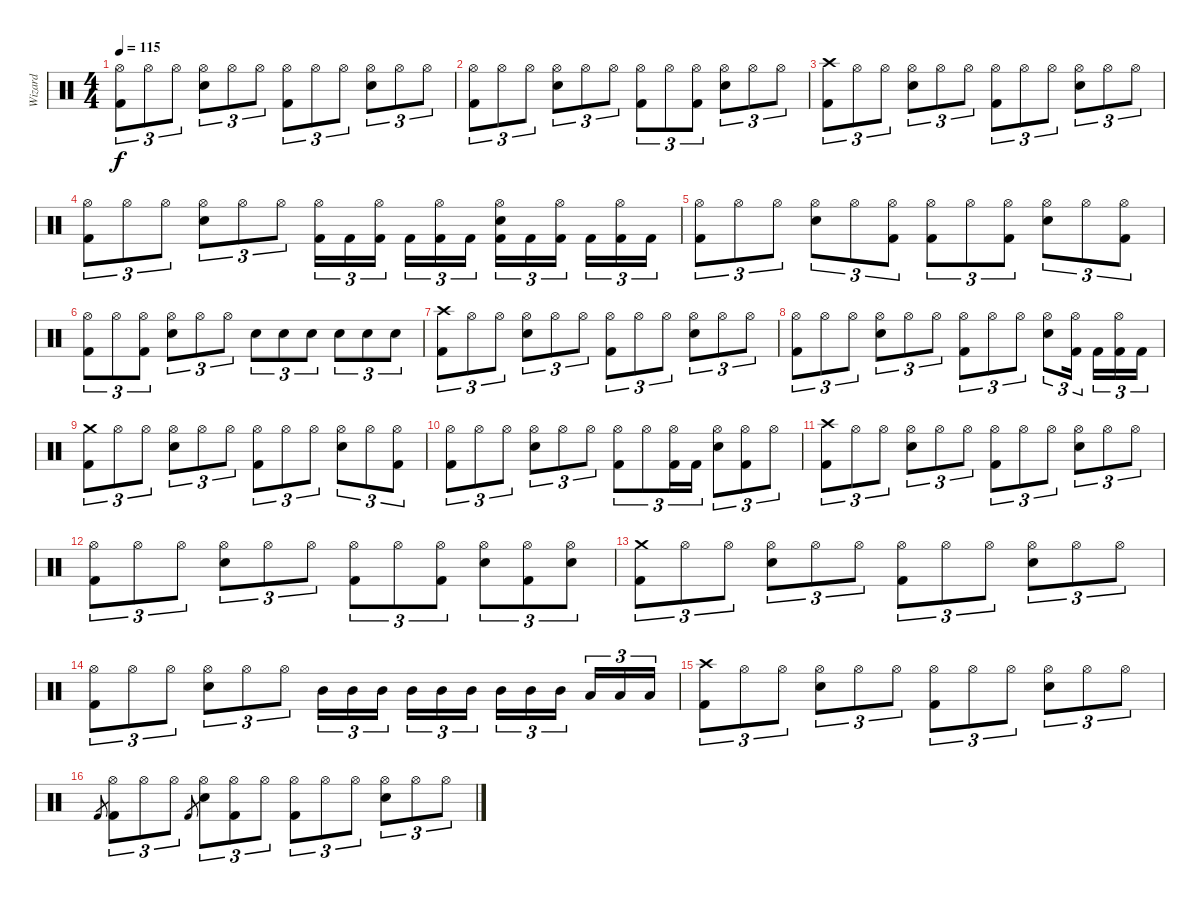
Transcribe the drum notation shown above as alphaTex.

\track ("Wizard" "Wizard") {instrument percussion}
\staff {score}
\articulation defaults
\ts (4 4)
\tempo 115
\clef neutral
\ks c
("Hi-Hat (open)" "Kick (hit) 2").8{tu (3 2) dy f} "Hi-Hat (open)".8{tu (3 2)} "Hi-Hat (open)".8{tu (3 2)} ("Hi-Hat (open)" "Snare (hit) 2").8{tu (3 2)} "Hi-Hat (open)".8{tu (3 2)} "Hi-Hat (open)".8{tu (3 2)} ("Hi-Hat (open)" "Kick (hit) 2").8{tu (3 2)} "Hi-Hat (open)".8{tu (3 2)} "Hi-Hat (open)".8{tu (3 2)} ("Hi-Hat (open)" "Snare (hit) 2").8{tu (3 2)} "Hi-Hat (open)".8{tu (3 2)} "Hi-Hat (open)".8{tu (3 2)} |
("Hi-Hat (open)" "Kick (hit) 2").8{tu (3 2)} "Hi-Hat (open)".8{tu (3 2)} "Hi-Hat (open)".8{tu (3 2)} ("Hi-Hat (open)" "Snare (hit) 2").8{tu (3 2)} "Hi-Hat (open)".8{tu (3 2)} "Hi-Hat (open)".8{tu (3 2)} ("Hi-Hat (open)" "Kick (hit) 2").8{tu (3 2)} "Hi-Hat (open)".8{tu (3 2)} ("Hi-Hat (open)" "Kick (hit) 2").8{tu (3 2)} ("Hi-Hat (open)" "Snare (hit) 2").8{tu (3 2)} "Hi-Hat (open)".8{tu (3 2)} "Hi-Hat (open)".8{tu (3 2)} |
("Crash high (hit)" "Kick (hit) 2").8{tu (3 2)} "Hi-Hat (open)".8{tu (3 2)} "Hi-Hat (open)".8{tu (3 2)} ("Hi-Hat (open)" "Snare (hit) 2").8{tu (3 2)} "Hi-Hat (open)".8{tu (3 2)} "Hi-Hat (open)".8{tu (3 2)} ("Hi-Hat (open)" "Kick (hit) 2").8{tu (3 2)} "Hi-Hat (open)".8{tu (3 2)} "Hi-Hat (open)".8{tu (3 2)} ("Hi-Hat (open)" "Snare (hit) 2").8{tu (3 2)} "Hi-Hat (open)".8{tu (3 2)} "Hi-Hat (open)".8{tu (3 2)} |
("Hi-Hat (open)" "Kick (hit) 2").8{tu (3 2)} "Hi-Hat (open)".8{tu (3 2)} "Hi-Hat (open)".8{tu (3 2)} ("Hi-Hat (open)" "Snare (hit) 2").8{tu (3 2)} "Hi-Hat (open)".8{tu (3 2)} "Hi-Hat (open)".8{tu (3 2)} ("Hi-Hat (open)" "Kick (hit) 2").16{tu (3 2)} "Kick (hit) 2".16{tu (3 2)} ("Hi-Hat (open)" "Kick (hit) 2").16{tu (3 2) beam splitsecondary} "Kick (hit) 2".16{tu (3 2)} ("Hi-Hat (open)" "Kick (hit) 2").16{tu (3 2)} "Kick (hit) 2".16{tu (3 2)} ("Hi-Hat (open)" "Snare (hit) 2" "Kick (hit) 2").16{tu (3 2)} "Kick (hit) 2".16{tu (3 2)} ("Hi-Hat (open)" "Kick (hit) 2").16{tu (3 2) beam splitsecondary} "Kick (hit) 2".16{tu (3 2)} ("Hi-Hat (open)" "Kick (hit) 2").16{tu (3 2)} "Kick (hit) 2".16{tu (3 2)} |
("Hi-Hat (open)" "Kick (hit) 2").8{tu (3 2)} "Hi-Hat (open)".8{tu (3 2)} "Hi-Hat (open)".8{tu (3 2)} ("Hi-Hat (open)" "Snare (hit) 2").8{tu (3 2)} "Hi-Hat (open)".8{tu (3 2)} ("Hi-Hat (open)" "Kick (hit) 2").8{tu (3 2)} ("Hi-Hat (open)" "Kick (hit) 2").8{tu (3 2)} "Hi-Hat (open)".8{tu (3 2)} ("Hi-Hat (open)" "Kick (hit) 2").8{tu (3 2)} ("Hi-Hat (open)" "Snare (hit) 2").8{tu (3 2)} "Hi-Hat (open)".8{tu (3 2)} ("Hi-Hat (open)" "Kick (hit) 2").8{tu (3 2)} |
("Hi-Hat (open)" "Kick (hit) 2").8{tu (3 2)} "Hi-Hat (open)".8{tu (3 2)} ("Hi-Hat (open)" "Kick (hit) 2").8{tu (3 2)} ("Hi-Hat (open)" "Snare (hit) 2").8{tu (3 2)} "Hi-Hat (open)".8{tu (3 2)} "Hi-Hat (open)".8{tu (3 2)} "Snare (hit) 2".8{tu (3 2)} "Snare (hit) 2".8{tu (3 2)} "Snare (hit) 2".8{tu (3 2)} "Snare (hit) 2".8{tu (3 2)} "Snare (hit) 2".8{tu (3 2)} "Snare (hit) 2".8{tu (3 2)} |
("Crash high (hit)" "Kick (hit) 2").8{tu (3 2)} "Hi-Hat (open)".8{tu (3 2)} "Hi-Hat (open)".8{tu (3 2)} ("Hi-Hat (open)" "Snare (hit) 2").8{tu (3 2)} "Hi-Hat (open)".8{tu (3 2)} "Hi-Hat (open)".8{tu (3 2)} ("Hi-Hat (open)" "Kick (hit) 2").8{tu (3 2)} "Hi-Hat (open)".8{tu (3 2)} "Hi-Hat (open)".8{tu (3 2)} ("Hi-Hat (open)" "Snare (hit) 2").8{tu (3 2)} "Hi-Hat (open)".8{tu (3 2)} "Hi-Hat (open)".8{tu (3 2)} |
("Hi-Hat (open)" "Kick (hit) 2").8{tu (3 2)} "Hi-Hat (open)".8{tu (3 2)} "Hi-Hat (open)".8{tu (3 2)} ("Hi-Hat (open)" "Snare (hit) 2").8{tu (3 2)} "Hi-Hat (open)".8{tu (3 2)} "Hi-Hat (open)".8{tu (3 2)} ("Hi-Hat (open)" "Kick (hit) 2").8{tu (3 2)} "Hi-Hat (open)".8{tu (3 2)} "Hi-Hat (open)".8{tu (3 2)} ("Hi-Hat (open)" "Snare (hit) 2").8{tu (3 2)} ("Hi-Hat (open)" "Kick (hit) 2").16{tu (3 2) beam splitsecondary} "Kick (hit) 2".16{tu (3 2)} ("Hi-Hat (open)" "Kick (hit) 2").16{tu (3 2)} "Kick (hit) 2".16{tu (3 2)} |
("Crash medium (hit)" "Kick (hit) 2").8{tu (3 2)} "Hi-Hat (open)".8{tu (3 2)} "Hi-Hat (open)".8{tu (3 2)} ("Hi-Hat (open)" "Snare (hit) 2").8{tu (3 2)} "Hi-Hat (open)".8{tu (3 2)} "Hi-Hat (open)".8{tu (3 2)} ("Hi-Hat (open)" "Kick (hit) 2").8{tu (3 2)} "Hi-Hat (open)".8{tu (3 2)} "Hi-Hat (open)".8{tu (3 2)} ("Hi-Hat (open)" "Snare (hit) 2").8{tu (3 2)} "Hi-Hat (open)".8{tu (3 2)} ("Hi-Hat (open)" "Kick (hit) 2").8{tu (3 2)} |
("Hi-Hat (open)" "Kick (hit) 2").8{tu (3 2)} "Hi-Hat (open)".8{tu (3 2)} "Hi-Hat (open)".8{tu (3 2)} ("Hi-Hat (open)" "Snare (hit) 2").8{tu (3 2)} "Hi-Hat (open)".8{tu (3 2)} "Hi-Hat (open)".8{tu (3 2)} ("Hi-Hat (open)" "Kick (hit) 2").8{tu (3 2)} "Hi-Hat (open)".8{tu (3 2)} ("Hi-Hat (open)" "Kick (hit) 2").16{tu (3 2)} "Kick (hit) 2".16{tu (3 2)} ("Hi-Hat (open)" "Snare (hit) 2").8{tu (3 2)} ("Hi-Hat (open)" "Kick (hit) 2").8{tu (3 2)} "Hi-Hat (open)".8{tu (3 2)} |
("Crash high (hit)" "Kick (hit) 2").8{tu (3 2)} "Hi-Hat (open)".8{tu (3 2)} "Hi-Hat (open)".8{tu (3 2)} ("Hi-Hat (open)" "Snare (hit) 2").8{tu (3 2)} "Hi-Hat (open)".8{tu (3 2)} "Hi-Hat (open)".8{tu (3 2)} ("Hi-Hat (open)" "Kick (hit) 2").8{tu (3 2)} "Hi-Hat (open)".8{tu (3 2)} "Hi-Hat (open)".8{tu (3 2)} ("Hi-Hat (open)" "Snare (hit) 2").8{tu (3 2)} "Hi-Hat (open)".8{tu (3 2)} "Hi-Hat (open)".8{tu (3 2)} |
("Hi-Hat (open)" "Kick (hit) 2").8{tu (3 2)} "Hi-Hat (open)".8{tu (3 2)} "Hi-Hat (open)".8{tu (3 2)} ("Hi-Hat (open)" "Snare (hit) 2").8{tu (3 2)} "Hi-Hat (open)".8{tu (3 2)} "Hi-Hat (open)".8{tu (3 2)} ("Hi-Hat (open)" "Kick (hit) 2").8{tu (3 2)} "Hi-Hat (open)".8{tu (3 2)} ("Hi-Hat (open)" "Kick (hit) 2").8{tu (3 2)} ("Hi-Hat (open)" "Snare (hit) 2").8{tu (3 2)} ("Hi-Hat (open)" "Kick (hit) 2").8{tu (3 2)} ("Hi-Hat (open)" "Snare (hit) 2").8{tu (3 2)} |
("Crash medium (hit)" "Kick (hit) 2").8{tu (3 2)} "Hi-Hat (open)".8{tu (3 2)} "Hi-Hat (open)".8{tu (3 2)} ("Hi-Hat (open)" "Snare (hit) 2").8{tu (3 2)} "Hi-Hat (open)".8{tu (3 2)} "Hi-Hat (open)".8{tu (3 2)} ("Hi-Hat (open)" "Kick (hit) 2").8{tu (3 2)} "Hi-Hat (open)".8{tu (3 2)} "Hi-Hat (open)".8{tu (3 2)} ("Hi-Hat (open)" "Snare (hit) 2").8{tu (3 2)} "Hi-Hat (open)".8{tu (3 2)} "Hi-Hat (open)".8{tu (3 2)} |
("Hi-Hat (open)" "Kick (hit) 2").8{tu (3 2)} "Hi-Hat (open)".8{tu (3 2)} "Hi-Hat (open)".8{tu (3 2)} ("Hi-Hat (open)" "Snare (hit) 2").8{tu (3 2)} "Hi-Hat (open)".8{tu (3 2)} "Hi-Hat (open)".8{tu (3 2)} "Mid Tom (hit)".16{tu (3 2)} "Mid Tom (hit)".16{tu (3 2)} "Mid Tom (hit)".16{tu (3 2) beam splitsecondary} "Mid Tom (hit)".16{tu (3 2)} "Mid Tom (hit)".16{tu (3 2)} "Mid Tom (hit)".16{tu (3 2)} "Mid Tom (hit)".16{tu (3 2)} "Mid Tom (hit)".16{tu (3 2)} "Mid Tom (hit)".16{tu (3 2) beam splitsecondary} "Low Tom (hit)".16{tu (3 2)} "Low Tom (hit)".16{tu (3 2)} "Low Tom (hit)".16{tu (3 2)} |
("Crash high (hit)" "Kick (hit) 2").8{tu (3 2)} "Hi-Hat (open)".8{tu (3 2)} "Hi-Hat (open)".8{tu (3 2)} ("Hi-Hat (open)" "Snare (hit) 2").8{tu (3 2)} "Hi-Hat (open)".8{tu (3 2)} "Hi-Hat (open)".8{tu (3 2)} ("Hi-Hat (open)" "Kick (hit) 2").8{tu (3 2)} "Hi-Hat (open)".8{tu (3 2)} "Hi-Hat (open)".8{tu (3 2)} ("Hi-Hat (open)" "Snare (hit) 2").8{tu (3 2)} "Hi-Hat (open)".8{tu (3 2)} "Hi-Hat (open)".8{tu (3 2)} |
"Kick (hit) 2".8{gr} ("Hi-Hat (open)" "Kick (hit) 2").8{tu (3 2)} "Hi-Hat (open)".8{tu (3 2)} "Hi-Hat (open)".8{tu (3 2)} "Kick (hit) 2".8{gr} ("Hi-Hat (open)" "Snare (hit) 2").8{tu (3 2)} ("Hi-Hat (open)" "Kick (hit) 2").8{tu (3 2)} "Hi-Hat (open)".8{tu (3 2)} ("Hi-Hat (open)" "Kick (hit) 2").8{tu (3 2)} "Hi-Hat (open)".8{tu (3 2)} "Hi-Hat (open)".8{tu (3 2)} ("Hi-Hat (open)" "Snare (hit) 2").8{tu (3 2)} "Hi-Hat (open)".8{tu (3 2)} "Hi-Hat (open)".8{tu (3 2)}
